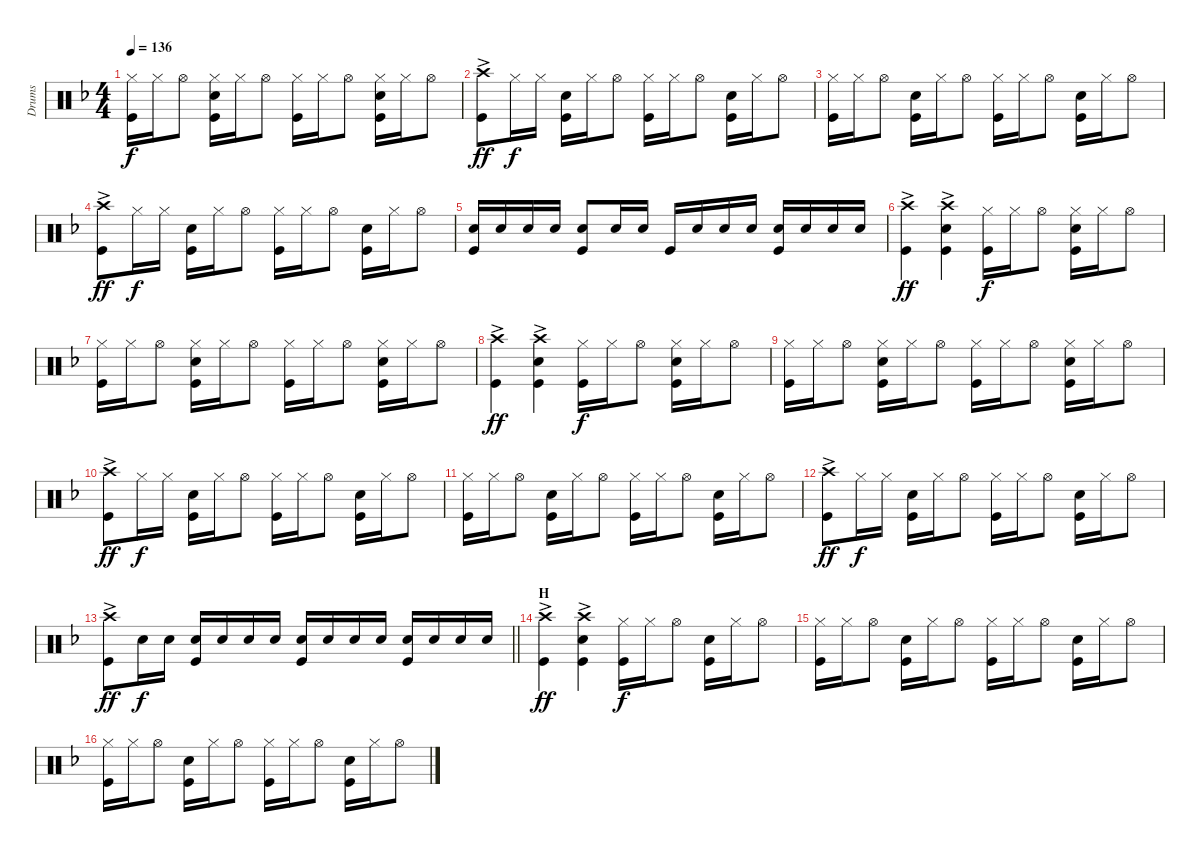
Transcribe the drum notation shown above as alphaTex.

\track ("Drums" "Drums") {instrument percussion}
\staff {score}
\articulation defaults
\ts (4 4)
\tempo 136
\clef neutral
\ks dminor
("Kick (hit)" "Hi-Hat (closed)").16{dy f} "Hi-Hat (closed)".16 "Hi-Hat (open)".8 ("Kick (hit)" "Hi-Hat (closed)" "Snare (hit) 2").16 "Hi-Hat (closed)".16 "Hi-Hat (open)".8 ("Kick (hit)" "Hi-Hat (closed)").16 "Hi-Hat (closed)".16 "Hi-Hat (open)".8 ("Kick (hit)" "Hi-Hat (closed)" "Snare (hit) 2").16 "Hi-Hat (closed)".16 "Hi-Hat (open)".8 |
("Crash high (hit)"{ac} "Kick (hit)").8{dy ff} "Hi-Hat (closed)".16{dy f} "Hi-Hat (closed)".16 ("Snare (hit) 2" "Kick (hit)").16 "Hi-Hat (closed)".16 "Hi-Hat (open)".8 ("Hi-Hat (closed)" "Kick (hit)").16 "Hi-Hat (closed)".16 "Hi-Hat (open)".8 ("Kick (hit)" "Snare (hit) 2").16 "Hi-Hat (closed)".16 "Hi-Hat (open)".8 |
("Kick (hit)" "Hi-Hat (closed)").16 "Hi-Hat (closed)".16 "Hi-Hat (open)".8 ("Kick (hit)" "Snare (hit) 2").16 "Hi-Hat (closed)".16 "Hi-Hat (open)".8 ("Kick (hit)" "Hi-Hat (closed)").16 "Hi-Hat (closed)".16 "Hi-Hat (open)".8 ("Kick (hit)" "Snare (hit) 2").16 "Hi-Hat (closed)".16 "Hi-Hat (open)".8 |
("Crash high (hit)"{ac} "Kick (hit)").8{dy ff} "Hi-Hat (closed)".16{dy f} "Hi-Hat (closed)".16 ("Snare (hit) 2" "Kick (hit)").16 "Hi-Hat (closed)".16 "Hi-Hat (open)".8 ("Kick (hit)" "Hi-Hat (closed)").16 "Hi-Hat (closed)".16 "Hi-Hat (open)".8 ("Kick (hit)" "Snare (hit) 2").16 "Hi-Hat (closed)".16 "Hi-Hat (open)".8 |
("Snare (hit) 2" "Kick (hit)").16 "Snare (hit) 2".16 "Snare (hit) 2".16 "Snare (hit) 2".16 ("Kick (hit)" "Snare (hit) 2").8 "Snare (hit) 2".16 "Snare (hit) 2".16 "Kick (hit)".16 "Snare (hit) 2".16 "Snare (hit) 2".16 "Snare (hit) 2".16 ("Snare (hit) 2" "Kick (hit)").16 "Snare (hit) 2".16 "Snare (hit) 2".16 "Snare (hit) 2".16 |
("Crash high (hit)" "Kick (hit)"{ac}).4{dy ff} ("Crash high (hit)" "Snare (hit) 2" "Kick (hit)"{ac}).4 ("Kick (hit)" "Hi-Hat (closed)").16{dy f} "Hi-Hat (closed)".16 "Hi-Hat (open)".8 ("Kick (hit)" "Hi-Hat (closed)" "Snare (hit) 2").16 "Hi-Hat (closed)".16 "Hi-Hat (open)".8 |
("Kick (hit)" "Hi-Hat (closed)").16 "Hi-Hat (closed)".16 "Hi-Hat (open)".8 ("Kick (hit)" "Hi-Hat (closed)" "Snare (hit) 2").16 "Hi-Hat (closed)".16 "Hi-Hat (open)".8 ("Kick (hit)" "Hi-Hat (closed)").16 "Hi-Hat (closed)".16 "Hi-Hat (open)".8 ("Kick (hit)" "Hi-Hat (closed)" "Snare (hit) 2").16 "Hi-Hat (closed)".16 "Hi-Hat (open)".8 |
("Crash high (hit)" "Kick (hit)"{ac}).4{dy ff} ("Crash high (hit)" "Snare (hit) 2" "Kick (hit)"{ac}).4 ("Kick (hit)" "Hi-Hat (closed)").16{dy f} "Hi-Hat (closed)".16 "Hi-Hat (open)".8 ("Kick (hit)" "Hi-Hat (closed)" "Snare (hit) 2").16 "Hi-Hat (closed)".16 "Hi-Hat (open)".8 |
("Kick (hit)" "Hi-Hat (closed)").16 "Hi-Hat (closed)".16 "Hi-Hat (open)".8 ("Kick (hit)" "Hi-Hat (closed)" "Snare (hit) 2").16 "Hi-Hat (closed)".16 "Hi-Hat (open)".8 ("Kick (hit)" "Hi-Hat (closed)").16 "Hi-Hat (closed)".16 "Hi-Hat (open)".8 ("Kick (hit)" "Hi-Hat (closed)" "Snare (hit) 2").16 "Hi-Hat (closed)".16 "Hi-Hat (open)".8 |
("Crash high (hit)"{ac} "Kick (hit)").8{dy ff} "Hi-Hat (closed)".16{dy f} "Hi-Hat (closed)".16 ("Snare (hit) 2" "Kick (hit)").16 "Hi-Hat (closed)".16 "Hi-Hat (open)".8 ("Hi-Hat (closed)" "Kick (hit)").16 "Hi-Hat (closed)".16 "Hi-Hat (open)".8 ("Kick (hit)" "Snare (hit) 2").16 "Hi-Hat (closed)".16 "Hi-Hat (open)".8 |
("Kick (hit)" "Hi-Hat (closed)").16 "Hi-Hat (closed)".16 "Hi-Hat (open)".8 ("Kick (hit)" "Snare (hit) 2").16 "Hi-Hat (closed)".16 "Hi-Hat (open)".8 ("Kick (hit)" "Hi-Hat (closed)").16 "Hi-Hat (closed)".16 "Hi-Hat (open)".8 ("Kick (hit)" "Snare (hit) 2").16 "Hi-Hat (closed)".16 "Hi-Hat (open)".8 |
("Crash high (hit)"{ac} "Kick (hit)").8{dy ff} "Hi-Hat (closed)".16{dy f} "Hi-Hat (closed)".16 ("Snare (hit) 2" "Kick (hit)").16 "Hi-Hat (closed)".16 "Hi-Hat (open)".8 ("Hi-Hat (closed)" "Kick (hit)").16 "Hi-Hat (closed)".16 "Hi-Hat (open)".8 ("Kick (hit)" "Snare (hit) 2").16 "Hi-Hat (closed)".16 "Hi-Hat (open)".8 |
\barLineRight lightlight
("Crash high (hit)" "Kick (hit)"{ac}).8{dy ff} "Snare (hit) 2".16{dy f} "Snare (hit) 2".16 ("Snare (hit) 2" "Kick (hit)").16 "Snare (hit) 2".16 "Snare (hit) 2".16 "Snare (hit) 2".16 ("Snare (hit) 2" "Kick (hit)").16 "Snare (hit) 2".16 "Snare (hit) 2".16 "Snare (hit) 2".16 ("Snare (hit) 2" "Kick (hit)").16 "Snare (hit) 2".16 "Snare (hit) 2".16 "Snare (hit) 2".16 |
\section ("" "H")
("Crash high (hit)" "Kick (hit)"{ac}).4{dy ff} ("Kick (hit)" "Snare (hit) 2" "Crash high (hit)"{ac}).4 ("Kick (hit)" "Hi-Hat (closed)").16{dy f} "Hi-Hat (closed)".16 "Hi-Hat (open)".8 ("Kick (hit)" "Snare (hit) 2").16 "Hi-Hat (closed)".16 "Hi-Hat (open)".8 |
("Kick (hit)" "Hi-Hat (closed)").16 "Hi-Hat (closed)".16 "Hi-Hat (open)".8 ("Kick (hit)" "Snare (hit) 2").16 "Hi-Hat (closed)".16 "Hi-Hat (open)".8 ("Kick (hit)" "Hi-Hat (closed)").16 "Hi-Hat (closed)".16 "Hi-Hat (open)".8 ("Kick (hit)" "Snare (hit) 2").16 "Hi-Hat (closed)".16 "Hi-Hat (open)".8 |
("Kick (hit)" "Hi-Hat (closed)").16 "Hi-Hat (closed)".16 "Hi-Hat (open)".8 ("Kick (hit)" "Snare (hit) 2").16 "Hi-Hat (closed)".16 "Hi-Hat (open)".8 ("Kick (hit)" "Hi-Hat (closed)").16 "Hi-Hat (closed)".16 "Hi-Hat (open)".8 ("Kick (hit)" "Snare (hit) 2").16 "Hi-Hat (closed)".16 "Hi-Hat (open)".8
